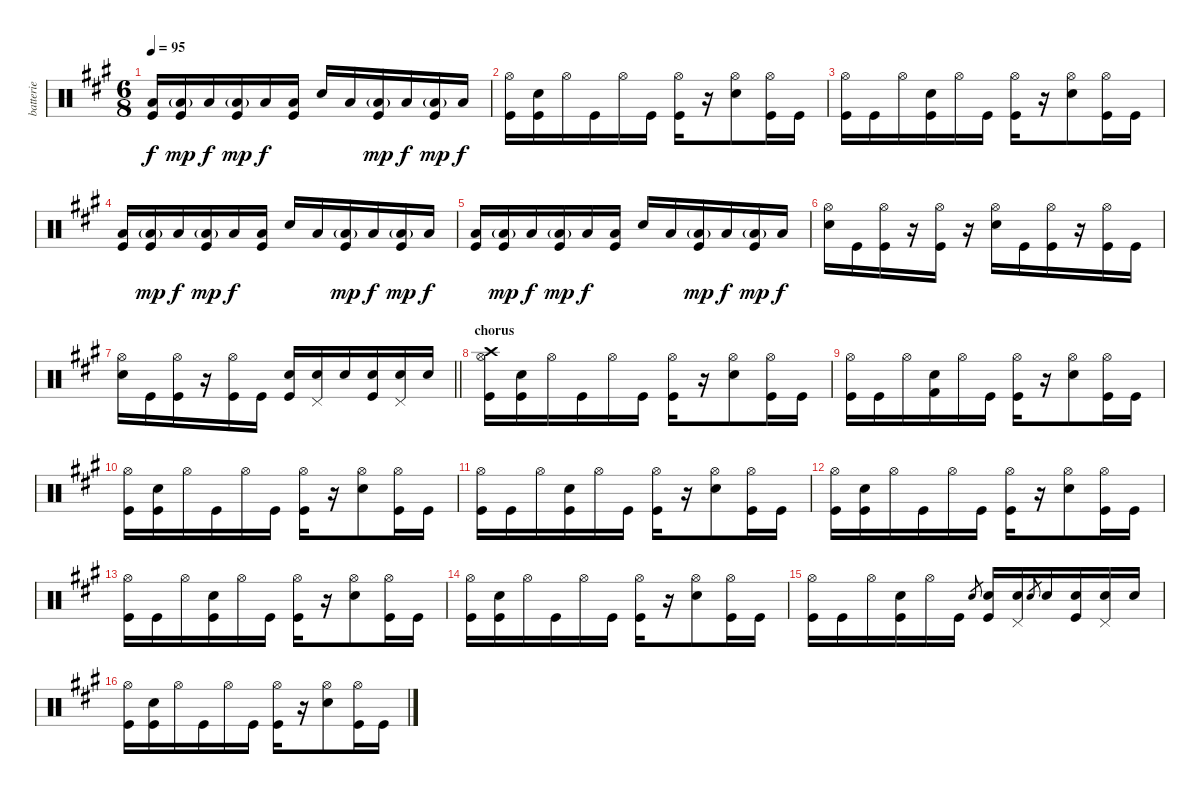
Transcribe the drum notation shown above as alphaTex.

\track ("batterie" "batterie") {instrument percussion}
\staff {score}
\articulation defaults
\ts (6 8)
\tempo 95
\clef neutral
\ks a
("Low Tom (hit)" "Kick (hit)").16{dy f} ("Low Tom (hit)"{g} "Kick (hit)").16{dy mp} "Low Tom (hit)".16{dy f} ("Low Tom (hit)"{g} "Kick (hit)").16{dy mp} "Low Tom (hit)".16{dy f} ("Low Tom (hit)" "Kick (hit)").16 "Electric Snare (hit)".16 "Low Tom (hit)".16 ("Low Tom (hit)"{g} "Kick (hit)").16{dy mp} "Low Tom (hit)".16{dy f} ("Low Tom (hit)"{g} "Kick (hit)").16{dy mp} "Low Tom (hit)".16{dy f} |
("Hi-Hat (open)" "Kick (hit)").16 ("Electric Snare (hit)" "Kick (hit)").16 "Hi-Hat (open)".16 "Kick (hit)".16 "Hi-Hat (open)".16 "Kick (hit)".16 ("Hi-Hat (open)" "Kick (hit)").16 r.16 ("Hi-Hat (open)" "Electric Snare (hit)").8 ("Hi-Hat (open)" "Kick (hit)").16 "Kick (hit)".16 |
("Hi-Hat (open)" "Kick (hit)").16 "Kick (hit)".16 "Hi-Hat (open)".16 ("Electric Snare (hit)" "Kick (hit)").16 "Hi-Hat (open)".16 "Kick (hit)".16 ("Hi-Hat (open)" "Kick (hit)").16 r.16 ("Hi-Hat (open)" "Electric Snare (hit)").8 ("Hi-Hat (open)" "Kick (hit)").16 "Kick (hit)".16 |
("Low Tom (hit)" "Kick (hit)").16 ("Low Tom (hit)"{g} "Kick (hit)").16{dy mp} "Low Tom (hit)".16{dy f} ("Low Tom (hit)"{g} "Kick (hit)").16{dy mp} "Low Tom (hit)".16{dy f} ("Low Tom (hit)" "Kick (hit)").16 "Electric Snare (hit)".16 "Low Tom (hit)".16 ("Low Tom (hit)"{g} "Kick (hit)").16{dy mp} "Low Tom (hit)".16{dy f} ("Low Tom (hit)"{g} "Kick (hit)").16{dy mp} "Low Tom (hit)".16{dy f} |
("Low Tom (hit)" "Kick (hit)").16 ("Low Tom (hit)"{g} "Kick (hit)").16{dy mp} "Low Tom (hit)".16{dy f} ("Low Tom (hit)"{g} "Kick (hit)").16{dy mp} "Low Tom (hit)".16{dy f} ("Low Tom (hit)" "Kick (hit)").16 "Electric Snare (hit)".16 "Low Tom (hit)".16 ("Low Tom (hit)"{g} "Kick (hit)").16{dy mp} "Low Tom (hit)".16{dy f} ("Low Tom (hit)"{g} "Kick (hit)").16{dy mp} "Low Tom (hit)".16{dy f} |
("Hi-Hat (open)" "Electric Snare (hit)").16 "Kick (hit)".16 ("Hi-Hat (open)" "Kick (hit)").16 r.16 ("Hi-Hat (open)" "Kick (hit)").16 r.16 ("Hi-Hat (open)" "Electric Snare (hit)").16 "Kick (hit)".16 ("Hi-Hat (open)" "Kick (hit)").16 r.16 ("Hi-Hat (open)" "Kick (hit)").16 "Kick (hit)".16 |
\barLineRight lightlight
("Hi-Hat (open)" "Electric Snare (hit)").16 "Kick (hit)".16 ("Hi-Hat (open)" "Kick (hit)").16 r.16 ("Hi-Hat (open)" "Kick (hit)").16 "Kick (hit)".16 ("Electric Snare (hit)" "Kick (hit)").16 ("Pedal Hi-Hat (hit)" "Electric Snare (hit)").16 "Electric Snare (hit)".16 ("Electric Snare (hit)" "Kick (hit)").16 ("Pedal Hi-Hat (hit)" "Electric Snare (hit)").16 "Electric Snare (hit)".16 |
\section ("" "chorus")
("Hi-Hat (open)" "Crash high (hit)" "Kick (hit)").16 ("Electric Snare (hit)" "Kick (hit)").16 "Hi-Hat (open)".16 "Kick (hit)".16 "Hi-Hat (open)".16 "Kick (hit)".16 ("Hi-Hat (open)" "Kick (hit)").16 r.16 ("Hi-Hat (open)" "Electric Snare (hit)").8 ("Hi-Hat (open)" "Kick (hit)").16 "Kick (hit)".16 |
("Hi-Hat (open)" "Kick (hit)").16 "Kick (hit)".16 "Hi-Hat (open)".16 ("Electric Snare (hit)" "Kick (hit) 2").16 "Hi-Hat (open)".16 "Kick (hit)".16 ("Hi-Hat (open)" "Kick (hit)").16 r.16 ("Hi-Hat (open)" "Electric Snare (hit)").8 ("Hi-Hat (open)" "Kick (hit)").16 "Kick (hit)".16 |
("Hi-Hat (open)" "Kick (hit)").16 ("Electric Snare (hit)" "Kick (hit)").16 "Hi-Hat (open)".16 "Kick (hit)".16 "Hi-Hat (open)".16 "Kick (hit)".16 ("Hi-Hat (open)" "Kick (hit)").16 r.16 ("Hi-Hat (open)" "Electric Snare (hit)").8 ("Hi-Hat (open)" "Kick (hit)").16 "Kick (hit)".16 |
("Hi-Hat (open)" "Kick (hit)").16 "Kick (hit)".16 "Hi-Hat (open)".16 ("Electric Snare (hit)" "Kick (hit)").16 "Hi-Hat (open)".16 "Kick (hit)".16 ("Hi-Hat (open)" "Kick (hit)").16 r.16 ("Hi-Hat (open)" "Electric Snare (hit)").8 ("Hi-Hat (open)" "Kick (hit)").16 "Kick (hit)".16 |
("Hi-Hat (open)" "Kick (hit)").16 ("Electric Snare (hit)" "Kick (hit)").16 "Hi-Hat (open)".16 "Kick (hit)".16 "Hi-Hat (open)".16 "Kick (hit)".16 ("Hi-Hat (open)" "Kick (hit)").16 r.16 ("Hi-Hat (open)" "Electric Snare (hit)").8 ("Hi-Hat (open)" "Kick (hit)").16 "Kick (hit)".16 |
("Hi-Hat (open)" "Kick (hit)").16 "Kick (hit)".16 "Hi-Hat (open)".16 ("Electric Snare (hit)" "Kick (hit)").16 "Hi-Hat (open)".16 "Kick (hit)".16 ("Hi-Hat (open)" "Kick (hit)").16 r.16 ("Hi-Hat (open)" "Electric Snare (hit)").8 ("Hi-Hat (open)" "Kick (hit)").16 "Kick (hit)".16 |
("Hi-Hat (open)" "Kick (hit)").16 ("Electric Snare (hit)" "Kick (hit)").16 "Hi-Hat (open)".16 "Kick (hit)".16 "Hi-Hat (open)".16 "Kick (hit)".16 ("Hi-Hat (open)" "Kick (hit)").16 r.16 ("Hi-Hat (open)" "Electric Snare (hit)").8 ("Hi-Hat (open)" "Kick (hit)").16 "Kick (hit)".16 |
("Hi-Hat (open)" "Kick (hit)").16 "Kick (hit)".16 "Hi-Hat (open)".16 ("Electric Snare (hit)" "Kick (hit)").16 "Hi-Hat (open)".16 "Kick (hit)".16 "Electric Snare (hit)".8{gr} ("Electric Snare (hit)" "Kick (hit)").16 ("Pedal Hi-Hat (hit)" "Electric Snare (hit)").16 "Electric Snare (hit)".8{gr} "Electric Snare (hit)".16 ("Electric Snare (hit)" "Kick (hit)").16 ("Pedal Hi-Hat (hit)" "Electric Snare (hit)").16 "Electric Snare (hit)".16 |
("Hi-Hat (open)" "Kick (hit)").16 ("Electric Snare (hit)" "Kick (hit)").16 "Hi-Hat (open)".16 "Kick (hit)".16 "Hi-Hat (open)".16 "Kick (hit)".16 ("Hi-Hat (open)" "Kick (hit)").16 r.16 ("Hi-Hat (open)" "Electric Snare (hit)").8 ("Hi-Hat (open)" "Kick (hit)").16 "Kick (hit)".16
